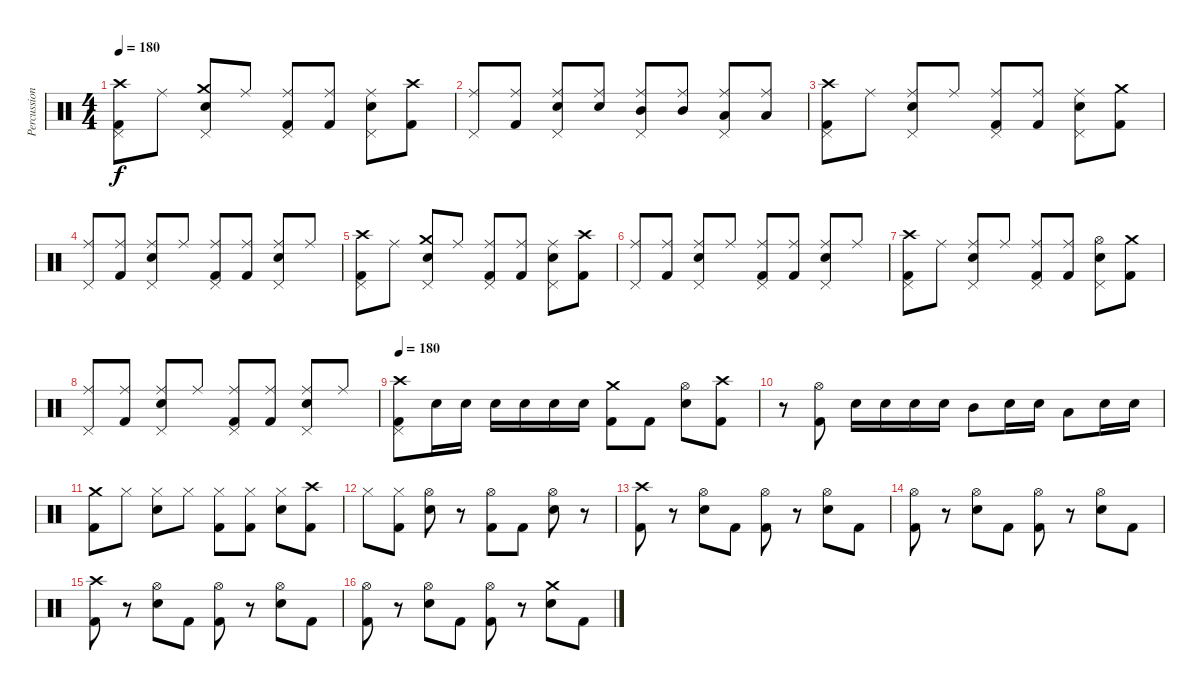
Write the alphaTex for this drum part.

\track ("Percussion" "Percussion") {instrument percussion}
\staff {score}
\articulation defaults
\ts (4 4)
\tempo 180
\clef neutral
\ks c
("Crash high (hit)" "Pedal Hi-Hat (hit)" "Kick (hit) 2").8{dy f} "Ride (middle)".8 ("Crash medium (hit)" "Pedal Hi-Hat (hit)" "Electric Snare (hit)").8 "Ride (middle)".8 ("Ride (middle)" "Pedal Hi-Hat (hit)" "Kick (hit) 2").8 ("Ride (middle)" "Kick (hit) 2").8 ("Ride (middle)" "Pedal Hi-Hat (hit)" "Electric Snare (hit)").8 ("Crash high (hit)" "Kick (hit) 2").8 |
("Ride (middle)" "Pedal Hi-Hat (hit)").8 ("Ride (middle)" "Kick (hit) 2").8 ("Ride (middle)" "Pedal Hi-Hat (hit)" "Electric Snare (hit)").8 ("Ride (middle)" "Electric Snare (hit)").8 ("Ride (middle)" "Pedal Hi-Hat (hit)" "Mid Tom (hit)").8 ("Ride (middle)" "Mid Tom (hit)").8 ("Ride (middle)" "Pedal Hi-Hat (hit)" "Low Tom (hit)").8 ("Ride (middle)" "Low Tom (hit)").8 |
("Crash high (hit)" "Pedal Hi-Hat (hit)" "Kick (hit) 2").8 "Ride (middle)".8 ("Ride (middle)" "Pedal Hi-Hat (hit)" "Electric Snare (hit)").8 "Ride (middle)".8 ("Ride (middle)" "Pedal Hi-Hat (hit)" "Kick (hit) 2").8 ("Ride (middle)" "Kick (hit) 2").8 ("Ride (middle)" "Pedal Hi-Hat (hit)" "Electric Snare (hit)").8 ("Crash medium (hit)" "Kick (hit) 2").8 |
("Ride (middle)" "Pedal Hi-Hat (hit)").8 ("Ride (middle)" "Kick (hit) 2").8 ("Ride (middle)" "Pedal Hi-Hat (hit)" "Electric Snare (hit)").8 "Ride (middle)".8 ("Ride (middle)" "Pedal Hi-Hat (hit)" "Kick (hit) 2").8 ("Ride (middle)" "Kick (hit) 2").8 ("Ride (middle)" "Pedal Hi-Hat (hit)" "Electric Snare (hit)").8 "Ride (middle)".8 |
("Crash high (hit)" "Pedal Hi-Hat (hit)" "Kick (hit) 2").8 "Ride (middle)".8 ("Crash medium (hit)" "Pedal Hi-Hat (hit)" "Electric Snare (hit)").8 "Ride (middle)".8 ("Ride (middle)" "Pedal Hi-Hat (hit)" "Kick (hit) 2").8 ("Ride (middle)" "Kick (hit) 2").8 ("Ride (middle)" "Pedal Hi-Hat (hit)" "Electric Snare (hit)").8 ("Crash high (hit)" "Kick (hit) 2").8 |
("Ride (middle)" "Pedal Hi-Hat (hit)").8 ("Ride (middle)" "Kick (hit) 2").8 ("Ride (middle)" "Pedal Hi-Hat (hit)" "Electric Snare (hit)").8 "Ride (middle)".8 ("Ride (middle)" "Pedal Hi-Hat (hit)" "Kick (hit) 2").8 ("Ride (middle)" "Kick (hit) 2").8 ("Ride (middle)" "Pedal Hi-Hat (hit)" "Electric Snare (hit)").8 "Ride (middle)".8 |
("Crash high (hit)" "Pedal Hi-Hat (hit)" "Kick (hit) 2").8 "Ride (middle)".8 ("Ride (middle)" "Pedal Hi-Hat (hit)" "Electric Snare (hit)").8 "Ride (middle)".8 ("Ride (middle)" "Pedal Hi-Hat (hit)" "Kick (hit) 2").8 ("Ride (middle)" "Kick (hit) 2").8 ("Hi-Hat (open)" "Pedal Hi-Hat (hit)" "Electric Snare (hit)").8 ("Crash medium (hit)" "Kick (hit) 2").8 |
("Ride (middle)" "Pedal Hi-Hat (hit)").8 ("Ride (middle)" "Kick (hit) 2").8 ("Ride (middle)" "Pedal Hi-Hat (hit)" "Electric Snare (hit)").8 "Ride (middle)".8 ("Ride (middle)" "Pedal Hi-Hat (hit)" "Kick (hit) 2").8 ("Ride (middle)" "Kick (hit) 2").8 ("Ride (middle)" "Pedal Hi-Hat (hit)" "Electric Snare (hit)").8 "Ride (middle)".8 |
\tempo 180
("Crash high (hit)" "Pedal Hi-Hat (hit)" "Kick (hit) 2").8 "Electric Snare (hit)".16 "Electric Snare (hit)".16 "Electric Snare (hit)".16 "Electric Snare (hit)".16 "Electric Snare (hit)".16 "Electric Snare (hit)".16 ("Crash medium (hit)" "Kick (hit) 2").8 "Kick (hit) 2".8 ("Hi-Hat (open)" "Electric Snare (hit)").8 ("Crash high (hit)" "Kick (hit) 2").8 |
r.8 ("Hi-Hat (open)" "Kick (hit) 2").8 "Electric Snare (hit)".16 "Electric Snare (hit)".16 "Electric Snare (hit)".16 "Electric Snare (hit)".16 "Mid Tom (hit)".8 "Electric Snare (hit)".16 "Electric Snare (hit)".16 "Low Tom (hit)".8 "Electric Snare (hit)".16 "Electric Snare (hit)".16 |
("Crash medium (hit)" "Kick (hit) 2").8 "Hi-Hat (closed)".8 ("Hi-Hat (closed)" "Electric Snare (hit)").8 "Hi-Hat (closed)".8 ("Hi-Hat (closed)" "Kick (hit) 2").8 ("Hi-Hat (closed)" "Kick (hit) 2").8 ("Hi-Hat (closed)" "Electric Snare (hit)").8 ("Crash high (hit)" "Kick (hit) 2").8 |
"Hi-Hat (closed)".8 ("Hi-Hat (closed)" "Kick (hit) 2").8 ("Hi-Hat (open)" "Electric Snare (hit)").8 r.8 ("Hi-Hat (open)" "Kick (hit) 2").8 "Kick (hit) 2".8 ("Hi-Hat (open)" "Electric Snare (hit)").8 r.8 |
("Crash high (hit)" "Kick (hit) 2").8 r.8 ("Hi-Hat (open)" "Electric Snare (hit)").8 "Kick (hit) 2".8 ("Hi-Hat (open)" "Kick (hit) 2").8 r.8 ("Hi-Hat (open)" "Electric Snare (hit)").8 "Kick (hit) 2".8 |
("Hi-Hat (open)" "Kick (hit) 2").8 r.8 ("Hi-Hat (open)" "Electric Snare (hit)").8 "Kick (hit) 2".8 ("Hi-Hat (open)" "Kick (hit) 2").8 r.8 ("Hi-Hat (open)" "Electric Snare (hit)").8 "Kick (hit) 2".8 |
("Crash high (hit)" "Kick (hit) 2").8 r.8 ("Hi-Hat (open)" "Electric Snare (hit)").8 "Kick (hit) 2".8 ("Hi-Hat (open)" "Kick (hit) 2").8 r.8 ("Hi-Hat (open)" "Electric Snare (hit)").8 "Kick (hit) 2".8 |
("Hi-Hat (open)" "Kick (hit) 2").8 r.8 ("Hi-Hat (open)" "Electric Snare (hit)").8 "Kick (hit) 2".8 ("Hi-Hat (open)" "Kick (hit) 2").8 r.8 ("Crash medium (hit)" "Electric Snare (hit)").8 "Kick (hit) 2".8
